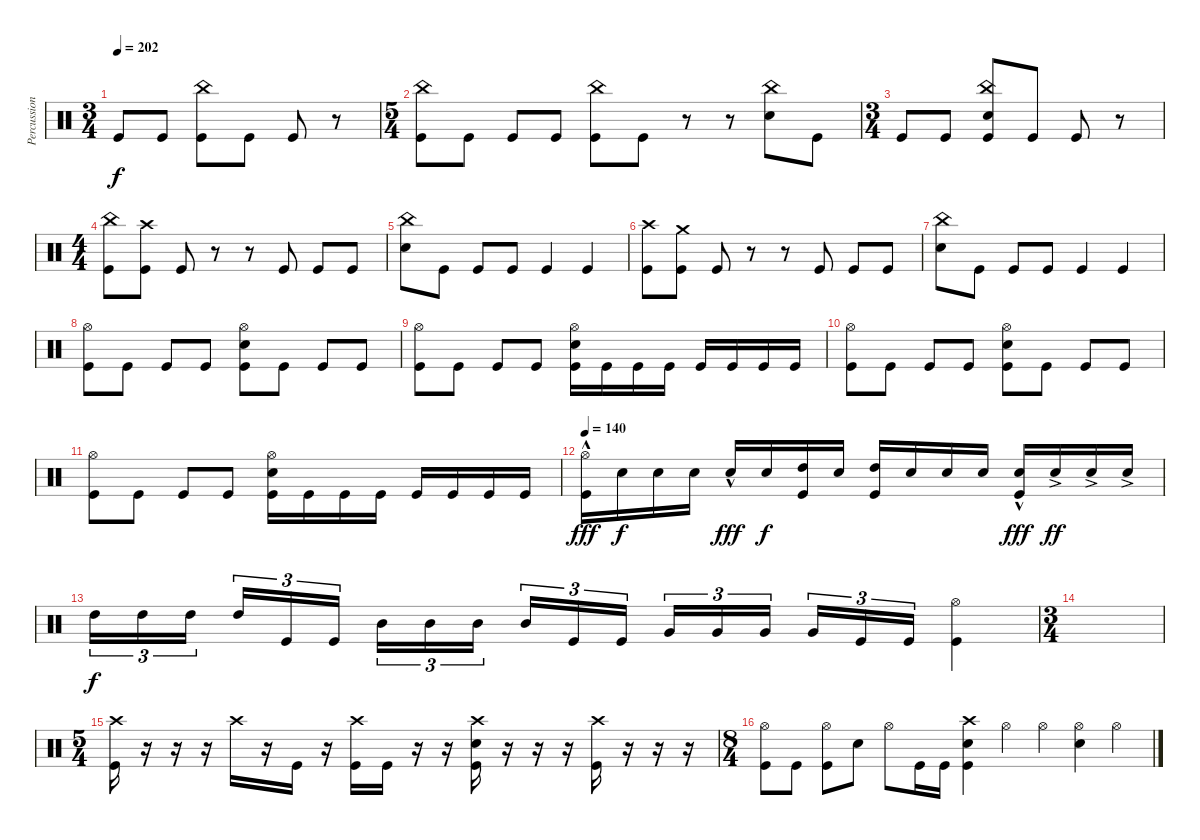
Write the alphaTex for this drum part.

\track ("Percussion" "Percussion") {instrument percussion}
\staff {score}
\articulation defaults
\ts (3 4)
\tempo 202
\clef neutral
\ks c "Kick (hit)".8{dy f} "Kick (hit)".8
("China (hit)" "Kick (hit)").8 "Kick (hit)".8 "Kick (hit)".8 r.8 |
\ts (5 4)
("China (hit)" "Kick (hit)").8 "Kick (hit)".8 "Kick (hit)".8 "Kick (hit)".8 ("China (hit)" "Kick (hit)").8 "Kick (hit)".8 r.8 r.8 ("China (hit)" "Snare (hit) 2").8 "Kick (hit)".8 |
\ts (3 4)
"Kick (hit)".8 "Kick (hit)".8 ("China (hit)" "Snare (hit) 2" "Kick (hit)").8 "Kick (hit)".8 "Kick (hit)".8 r.8 |
\ts (4 4)
("China (hit)" "Kick (hit)").8 ("Crash high (hit)" "Kick (hit)").8 "Kick (hit)".8 r.8 r.8 "Kick (hit)".8 "Kick (hit)".8 "Kick (hit)".8 |
("China (hit)" "Snare (hit) 2").8 "Kick (hit)".8 "Kick (hit)".8 "Kick (hit)".8 "Kick (hit)".4 "Kick (hit)".4 |
("Crash high (hit)" "Kick (hit)").8 ("Crash medium (hit)" "Kick (hit)").8 "Kick (hit)".8 r.8 r.8 "Kick (hit)".8 "Kick (hit)".8 "Kick (hit)".8 |
("China (hit)" "Snare (hit) 2").8 "Kick (hit)".8 "Kick (hit)".8 "Kick (hit)".8 "Kick (hit)".4 "Kick (hit)".4 |
("Hi-Hat (open)" "Kick (hit)").8 "Kick (hit)".8 "Kick (hit)".8 "Kick (hit)".8 ("Hi-Hat (open)" "Snare (hit) 2" "Kick (hit)").8 "Kick (hit)".8 "Kick (hit)".8 "Kick (hit)".8 |
("Hi-Hat (open)" "Kick (hit)").8 "Kick (hit)".8 "Kick (hit)".8 "Kick (hit)".8 ("Hi-Hat (open)" "Snare (hit) 2" "Kick (hit)").16 "Kick (hit)".16 "Kick (hit)".16 "Kick (hit)".16 "Kick (hit)".16 "Kick (hit)".16 "Kick (hit)".16 "Kick (hit)".16 |
("Hi-Hat (open)" "Kick (hit)").8 "Kick (hit)".8 "Kick (hit)".8 "Kick (hit)".8 ("Hi-Hat (open)" "Snare (hit) 2" "Kick (hit)").8 "Kick (hit)".8 "Kick (hit)".8 "Kick (hit)".8 |
("Hi-Hat (open)" "Kick (hit)").8 "Kick (hit)".8 "Kick (hit)".8 "Kick (hit)".8 ("Hi-Hat (open)" "Snare (hit) 2" "Kick (hit)").16 "Kick (hit)".16 "Kick (hit)".16 "Kick (hit)".16 "Kick (hit)".16 "Kick (hit)".16 "Kick (hit)".16 "Kick (hit)".16 |
\tempo 140
("Hi-Hat (open)"{hac} "Kick (hit)").16{dy fff} "Snare (hit) 2".16{dy f} "Snare (hit) 2".16 "Snare (hit) 2".16 "Snare (hit) 2"{hac}.16{dy fff} "Snare (hit) 2".16{dy f} ("High Tom (hit)" "Kick (hit)").16 "Snare (hit) 2".16 ("High Tom (hit)" "Kick (hit)").16 "Snare (hit) 2".16 "Snare (hit) 2".16 "Snare (hit) 2".16 ("Snare (hit) 2"{hac} "Kick (hit)").16{dy fff} "Snare (hit) 2"{ac}.16{dy ff} "Snare (hit) 2"{ac}.16 "Snare (hit) 2"{ac}.16 |
"High Tom (hit)".16{tu (3 2) dy f} "High Tom (hit)".16{tu (3 2)} "High Tom (hit)".16{tu (3 2) beam splitsecondary} "High Tom (hit)".16{tu (3 2)} "Kick (hit)".16{tu (3 2)} "Kick (hit)".16{tu (3 2)} "Mid Tom (hit)".16{tu (3 2)} "Mid Tom (hit)".16{tu (3 2)} "Mid Tom (hit)".16{tu (3 2) beam splitsecondary} "Mid Tom (hit)".16{tu (3 2)} "Kick (hit)".16{tu (3 2)} "Kick (hit)".16{tu (3 2)} "Very Low Tom (hit)".16{tu (3 2)} "Very Low Tom (hit)".16{tu (3 2)} "Very Low Tom (hit)".16{tu (3 2) beam splitsecondary} "Very Low Tom (hit)".16{tu (3 2)} "Kick (hit)".16{tu (3 2)} "Kick (hit)".16{tu (3 2)} ("Hi-Hat (open)" "Kick (hit)").4 |
\ts (3 4)
|
\ts (5 4)
("Crash high (hit)" "Kick (hit)").16 r.16 r.16 r.16 "Crash high (hit)".16 r.16 "Kick (hit)".16 r.16 ("Crash high (hit)" "Kick (hit)").16 "Kick (hit)".16 r.16 r.16 ("Crash high (hit)" "Snare (hit) 2" "Kick (hit)").16 r.16 r.16 r.16 ("Crash high (hit)" "Kick (hit)").16 r.16 r.16 r.16 |
\ts (8 4)
("Hi-Hat (open)" "Kick (hit)").8 "Kick (hit)".8 ("Hi-Hat (open)" "Kick (hit)").8 "Snare (hit) 2".8 "Hi-Hat (open)".8 "Kick (hit)".16 "Kick (hit)".16 ("Crash high (hit)" "Snare (hit) 2" "Kick (hit)").4 "Hi-Hat (open)".4 "Hi-Hat (open)".4 ("Hi-Hat (open)" "Snare (hit) 2").4 "Hi-Hat (open)".4
